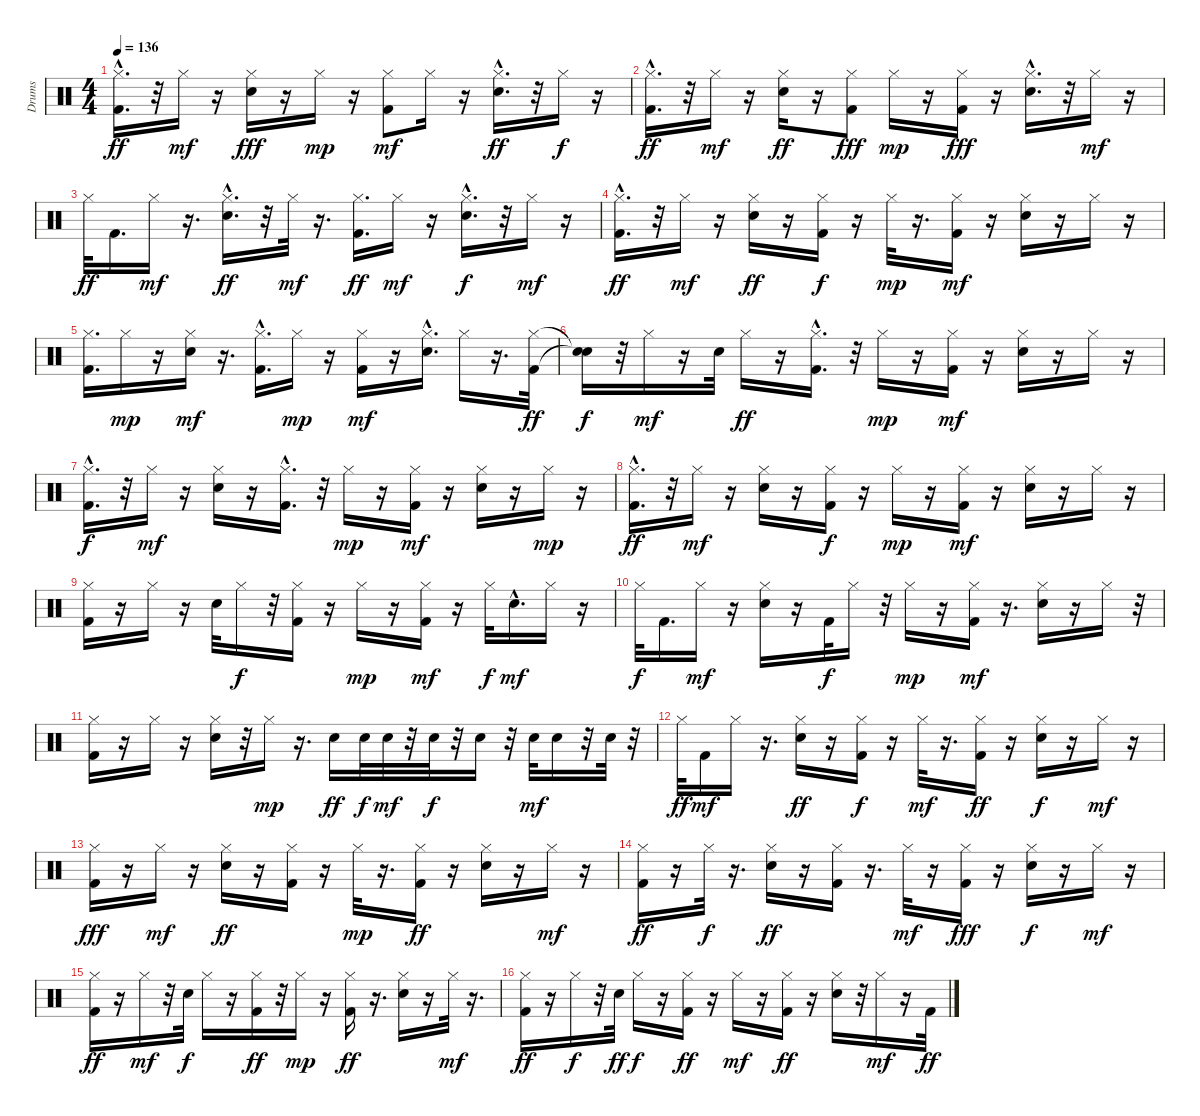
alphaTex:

\track ("Drums" "Drums") {instrument percussion}
\staff {score}
\articulation defaults
\ts (4 4)
\tempo 136
\clef neutral
\ks c
("Hi-Hat (closed)" "Kick (hit) 2"{hac}).16{d dy ff} r.32 "Hi-Hat (closed)".16{dy mf} r.16 ("Snare (hit) 2" "Hi-Hat (closed)").16{dy fff} r.16 "Hi-Hat (closed)".16{dy mp} r.16 ("Kick (hit) 2" "Hi-Hat (closed)").8{dy mf} "Hi-Hat (closed)".16 r.16 ("Snare (hit) 2"{hac} "Hi-Hat (closed)").16{d dy ff} r.32 "Hi-Hat (closed)".16{dy f} r.16 |
("Kick (hit) 2"{hac} "Hi-Hat (closed)").16{d dy ff} r.32 "Hi-Hat (closed)".16{dy mf} r.16 ("Snare (hit) 2" "Hi-Hat (closed)").16{dy ff} r.16 ("Kick (hit) 2" "Hi-Hat (closed)").8{dy fff} "Hi-Hat (closed)".16{dy mp} r.16 ("Kick (hit) 2" "Hi-Hat (closed)").16{dy fff} r.16 ("Snare (hit) 2"{hac} "Hi-Hat (closed)").16{d} r.32 "Hi-Hat (closed)".16{dy mf} r.16 |
"Hi-Hat (closed)".32{dy ff} "Kick (hit) 2".16{d} "Hi-Hat (closed)".16{dy mf} r.16{d} ("Snare (hit) 2"{hac} "Hi-Hat (closed)").16{d dy ff} r.32 "Hi-Hat (closed)".32{dy mf} r.16{d} ("Kick (hit) 2" "Hi-Hat (closed)").16{d dy ff} "Hi-Hat (closed)".16{dy mf} r.16 ("Snare (hit) 2"{hac} "Hi-Hat (closed)").16{d dy f} r.32 "Hi-Hat (closed)".16{dy mf} r.16 |
("Kick (hit) 2"{hac} "Hi-Hat (closed)").16{d dy ff} r.32 "Hi-Hat (closed)".16{dy mf} r.16 ("Snare (hit) 2" "Hi-Hat (closed)").16{dy ff} r.16 ("Kick (hit) 2" "Hi-Hat (closed)").16{dy f} r.16 "Hi-Hat (closed)".32{dy mp} r.16{d} ("Kick (hit) 2" "Hi-Hat (closed)").16{dy mf} r.16 ("Hi-Hat (closed)" "Snare (hit) 2").16 r.16 "Hi-Hat (closed)".16 r.16 |
("Hi-Hat (closed)" "Kick (hit) 2").16{d} "Hi-Hat (closed)".16{dy mp} r.16 ("Hi-Hat (closed)" "Snare (hit) 2").16{dy mf} r.16{d} ("Hi-Hat (closed)" "Kick (hit) 2"{hac}).16{d} "Hi-Hat (closed)".16{dy mp} r.16 ("Kick (hit) 2" "Hi-Hat (closed)").16{dy mf} r.16 ("Hi-Hat (closed)" "Snare (hit) 2"{hac}).16{d} "Hi-Hat (closed)".16 r.16{d} ("Hi-Hat (closed)" "Kick (hit) 2").32{dy ff} |
("Snare (hit)"{t} "Snare (hit)"{t}).16{dy f} r.32 "Hi-Hat (closed)".16{dy mf} r.16 "Snare (hit) 2".32 "Hi-Hat (closed)".16{dy ff} r.16 ("Hi-Hat (closed)" "Kick (hit) 2"{hac}).16{d} r.32 "Hi-Hat (closed)".16{dy mp} r.16 ("Hi-Hat (closed)" "Kick (hit) 2").16{dy mf} r.16 ("Hi-Hat (closed)" "Snare (hit) 2").16 r.16 "Hi-Hat (closed)".16 r.16 |
("Kick (hit) 2"{hac} "Hi-Hat (closed)").16{d dy f} r.32 "Hi-Hat (closed)".16{dy mf} r.16 ("Snare (hit) 2" "Hi-Hat (closed)").16 r.16 ("Hi-Hat (closed)" "Kick (hit) 2"{hac}).16{d} r.32 "Hi-Hat (closed)".16{dy mp} r.16 ("Kick (hit) 2" "Hi-Hat (closed)").16{dy mf} r.16 ("Snare (hit) 2" "Hi-Hat (closed)").16 r.16 "Hi-Hat (closed)".16{dy mp} r.16 |
("Hi-Hat (closed)" "Kick (hit) 2"{hac}).16{d dy ff} r.32 "Hi-Hat (closed)".16{dy mf} r.16 ("Snare (hit) 2" "Hi-Hat (closed)").16 r.16 ("Kick (hit) 2" "Hi-Hat (closed)").16{dy f} r.16 "Hi-Hat (closed)".16{dy mp} r.16 ("Kick (hit) 2" "Hi-Hat (closed)").16{dy mf} r.16 ("Hi-Hat (closed)" "Snare (hit) 2").16 r.16 "Hi-Hat (closed)".16 r.16 |
("Hi-Hat (closed)" "Kick (hit) 2").16 r.16 "Hi-Hat (closed)".16 r.16 "Snare (hit) 2".32 "Hi-Hat (closed)".16{dy f} r.32 ("Kick (hit) 2" "Hi-Hat (closed)").16 r.16 "Hi-Hat (closed)".16{dy mp} r.16 ("Hi-Hat (closed)" "Kick (hit) 2").16{dy mf} r.16 "Hi-Hat (closed)".32{dy f} "Snare (hit) 2"{hac}.16{d dy mf} "Hi-Hat (closed)".16 r.16 |
"Hi-Hat (closed)".32{dy f} "Kick (hit) 2".16{d} "Hi-Hat (closed)".16{dy mf} r.16 ("Hi-Hat (closed)" "Snare (hit) 2").16 r.16 "Kick (hit) 2".32{dy f} "Hi-Hat (closed)".16 r.32 "Hi-Hat (closed)".16{dy mp} r.16 ("Hi-Hat (closed)" "Kick (hit) 2").16{dy mf} r.16{d} ("Hi-Hat (closed)" "Snare (hit) 2").16 r.16 "Hi-Hat (closed)".16 r.32 |
("Kick (hit) 2" "Hi-Hat (closed)").16 r.16 "Hi-Hat (closed)".16 r.16 ("Hi-Hat (closed)" "Snare (hit) 2").16 r.32 "Hi-Hat (closed)".16{dy mp} r.16{d} "Snare (hit) 2".16{dy ff} "Snare (hit) 2".32{dy f} "Snare (hit) 2".32{dy mf} r.32 "Snare (hit) 2".32{dy f} r.32 "Snare (hit) 2".16 r.32 "Snare (hit) 2".32{dy mf} "Snare (hit) 2".16 r.32 "Snare (hit) 2".32 r.32 |
"Hi-Hat (closed)".32{dy ff} "Kick (hit) 2".16{dy mf} "Hi-Hat (closed)".16 r.16{d} ("Snare (hit) 2" "Hi-Hat (closed)").16{dy ff} r.16 ("Kick (hit) 2" "Hi-Hat (closed)").16{dy f} r.16 "Hi-Hat (closed)".32{dy mf} r.16{d} ("Kick (hit) 2" "Hi-Hat (closed)").16{dy ff} r.16 ("Hi-Hat (closed)" "Snare (hit) 2").16{dy f} r.16 "Hi-Hat (closed)".16{dy mf} r.16 |
("Hi-Hat (closed)" "Kick (hit) 2").16{dy fff} r.16 "Hi-Hat (closed)".16{dy mf} r.16 ("Snare (hit) 2" "Hi-Hat (closed)").16{dy ff} r.16 ("Hi-Hat (closed)" "Kick (hit) 2").16 r.16 "Hi-Hat (closed)".32{dy mp} r.16{d} ("Hi-Hat (closed)" "Kick (hit) 2").16{dy ff} r.16 ("Hi-Hat (closed)" "Snare (hit) 2").16 r.16 "Hi-Hat (closed)".16{dy mf} r.16 |
("Kick (hit) 2" "Hi-Hat (closed)").16{dy ff} r.16 "Hi-Hat (closed)".32{dy f} r.16{d} ("Snare (hit) 2" "Hi-Hat (closed)").16{dy ff} r.16 ("Kick (hit) 2" "Hi-Hat (closed)").16 r.16{d} "Hi-Hat (closed)".32{dy mf} r.16 ("Kick (hit) 2" "Hi-Hat (closed)").16{dy fff} r.16 ("Hi-Hat (closed)" "Snare (hit) 2").16{dy f} r.16 "Hi-Hat (closed)".16{dy mf} r.16 |
("Kick (hit) 2" "Hi-Hat (closed)").16{dy ff} r.16 "Hi-Hat (closed)".16{dy mf} r.32 "Snare (hit) 2".32{dy f} "Hi-Hat (closed)".16 r.16 ("Hi-Hat (closed)" "Kick (hit) 2").16{dy ff} r.32 "Hi-Hat (closed)".16{dy mp} r.16 ("Hi-Hat (closed)" "Kick (hit) 2").16{dy ff} r.16{d} ("Hi-Hat (closed)" "Snare (hit) 2").16 r.16 "Hi-Hat (closed)".32{dy mf} r.16{d} |
("Kick (hit) 2" "Hi-Hat (closed)").16{dy ff} r.16 "Hi-Hat (closed)".16{dy f} r.32 "Snare (hit) 2".32{dy ff} "Hi-Hat (closed)".16{dy f} r.16 ("Kick (hit) 2" "Hi-Hat (closed)").16{dy ff} r.16 "Hi-Hat (closed)".16{dy mf} r.16 ("Kick (hit) 2" "Hi-Hat (closed)").16{dy ff} r.16 ("Hi-Hat (closed)" "Snare (hit) 2").16 r.32 "Hi-Hat (closed)".16{dy mf} r.16 "Kick (hit) 2".32{dy ff}
